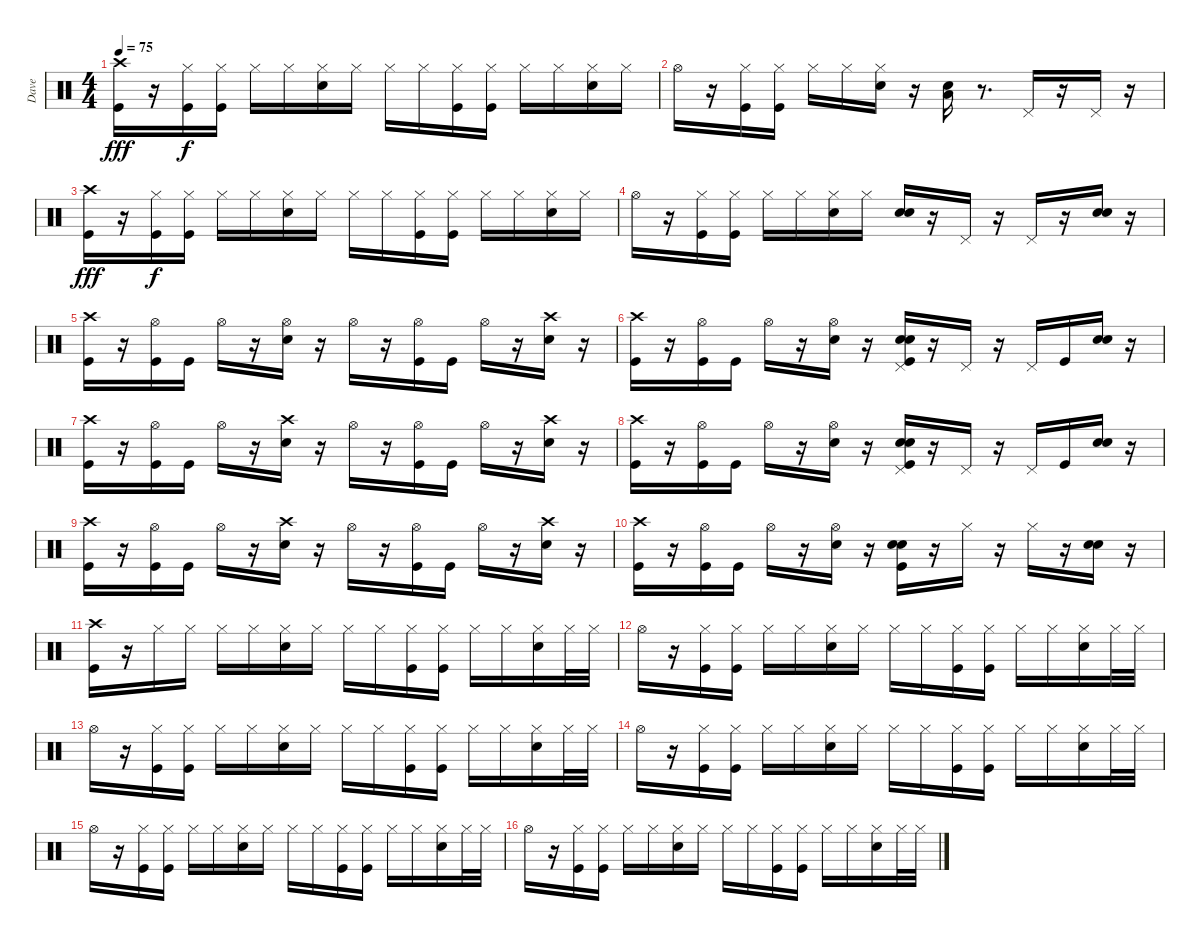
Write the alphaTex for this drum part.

\track ("Dave" "Dave") {instrument percussion}
\staff {score}
\articulation defaults
\ts (4 4)
\tempo 75
\clef neutral
\ks c
("Crash high (hit)" "Kick (hit)").16{dy fff} r.16 ("Hi-Hat (closed)" "Kick (hit)").16{dy f} ("Hi-Hat (closed)" "Kick (hit)").16 "Hi-Hat (closed)".16 "Hi-Hat (closed)".16 ("Hi-Hat (closed)" "Snare (hit) 2").16 "Hi-Hat (closed)".16 "Hi-Hat (closed)".16 "Hi-Hat (closed)".16 ("Hi-Hat (closed)" "Kick (hit)").16 ("Hi-Hat (closed)" "Kick (hit)").16 "Hi-Hat (closed)".16 "Hi-Hat (closed)".16 ("Hi-Hat (closed)" "Snare (hit) 2").16 "Hi-Hat (closed)".16 |
"Hi-Hat (open)".16 r.16 ("Hi-Hat (closed)" "Kick (hit)").16 ("Hi-Hat (closed)" "Kick (hit)").16 "Hi-Hat (closed)".16 "Hi-Hat (closed)".16 ("Hi-Hat (closed)" "Snare (hit) 2").16 r.16 ("Snare (hit) 2" "Low Floor Tom (hit)").16 r.8{d} "Pedal Hi-Hat (hit)".16 r.16 "Pedal Hi-Hat (hit)".16 r.16 |
("Crash high (hit)" "Kick (hit)").16{dy fff} r.16 ("Hi-Hat (closed)" "Kick (hit)").16{dy f} ("Hi-Hat (closed)" "Kick (hit)").16 "Hi-Hat (closed)".16 "Hi-Hat (closed)".16 ("Hi-Hat (closed)" "Snare (hit) 2").16 "Hi-Hat (closed)".16 "Hi-Hat (closed)".16 "Hi-Hat (closed)".16 ("Hi-Hat (closed)" "Kick (hit)").16 ("Hi-Hat (closed)" "Kick (hit)").16 "Hi-Hat (closed)".16 "Hi-Hat (closed)".16 ("Hi-Hat (closed)" "Snare (hit) 2").16 "Hi-Hat (closed)".16 |
"Hi-Hat (open)".16 r.16 ("Hi-Hat (closed)" "Kick (hit)").16 ("Hi-Hat (closed)" "Kick (hit)").16 "Hi-Hat (closed)".16 "Hi-Hat (closed)".16 ("Hi-Hat (closed)" "Snare (hit) 2").16 "Hi-Hat (closed)".16 ("Snare (hit) 2" "Snare (hit) 2").16 r.16 "Pedal Hi-Hat (hit)".16 r.16 "Pedal Hi-Hat (hit)".16 r.16 ("Snare (hit) 2" "Snare (hit) 2").16 r.16 |
("Crash high (hit)" "Kick (hit)").16 r.16 ("Hi-Hat (open)" "Kick (hit)").16 "Kick (hit)".16 "Hi-Hat (open)".16 r.16 ("Hi-Hat (open)" "Snare (hit) 2").16 r.16 "Hi-Hat (open)".16 r.16 ("Hi-Hat (open)" "Kick (hit)").16 "Kick (hit)".16 "Hi-Hat (open)".16 r.16 ("Crash high (hit)" "Snare (hit) 2").16 r.16 |
("Crash high (hit)" "Kick (hit)").16 r.16 ("Hi-Hat (open)" "Kick (hit)").16 "Kick (hit)".16 "Hi-Hat (open)".16 r.16 ("Hi-Hat (open)" "Snare (hit) 2").16 r.16 ("Pedal Hi-Hat (hit)" "Snare (hit) 2" "Snare (hit) 2" "Kick (hit)").16 r.16 "Pedal Hi-Hat (hit)".16 r.16 "Pedal Hi-Hat (hit)".16 "Kick (hit)".16 ("Snare (hit) 2" "Snare (hit) 2").16 r.16 |
("Crash high (hit)" "Kick (hit)").16 r.16 ("Hi-Hat (open)" "Kick (hit)").16 "Kick (hit)".16 "Hi-Hat (open)".16 r.16 ("Crash high (hit)" "Snare (hit) 2").16 r.16 "Hi-Hat (open)".16 r.16 ("Hi-Hat (open)" "Kick (hit)").16 "Kick (hit)".16 "Hi-Hat (open)".16 r.16 ("Crash high (hit)" "Snare (hit) 2").16 r.16 |
("Crash high (hit)" "Kick (hit)").16 r.16 ("Hi-Hat (open)" "Kick (hit)").16 "Kick (hit)".16 "Hi-Hat (open)".16 r.16 ("Hi-Hat (open)" "Snare (hit) 2").16 r.16 ("Pedal Hi-Hat (hit)" "Snare (hit) 2" "Snare (hit) 2" "Kick (hit)").16 r.16 "Pedal Hi-Hat (hit)".16 r.16 "Pedal Hi-Hat (hit)".16 "Kick (hit)".16 ("Snare (hit) 2" "Snare (hit) 2").16 r.16 |
("Crash high (hit)" "Kick (hit)").16 r.16 ("Hi-Hat (open)" "Kick (hit)").16 "Kick (hit)".16 "Hi-Hat (open)".16 r.16 ("Crash high (hit)" "Snare (hit) 2").16 r.16 "Hi-Hat (open)".16 r.16 ("Hi-Hat (open)" "Kick (hit)").16 "Kick (hit)".16 "Hi-Hat (open)".16 r.16 ("Crash high (hit)" "Snare (hit) 2").16 r.16 |
("Crash high (hit)" "Kick (hit)").16 r.16 ("Hi-Hat (open)" "Kick (hit)").16 "Kick (hit)".16 "Hi-Hat (open)".16 r.16 ("Hi-Hat (open)" "Snare (hit) 2").16 r.16 ("Snare (hit) 2" "Snare (hit) 2" "Kick (hit)").16 r.16 "Hi-Hat (closed)".16 r.16 "Hi-Hat (closed)".16 r.16 ("Snare (hit) 2" "Snare (hit) 2").16 r.16 |
("Crash high (hit)" "Kick (hit)").16 r.16 "Hi-Hat (closed)".16 "Hi-Hat (closed)".16 "Hi-Hat (closed)".16 "Hi-Hat (closed)".16 ("Hi-Hat (closed)" "Snare (hit) 2").16 "Hi-Hat (closed)".16 "Hi-Hat (closed)".16 "Hi-Hat (closed)".16 ("Hi-Hat (closed)" "Kick (hit)").16 ("Hi-Hat (closed)" "Kick (hit)").16 "Hi-Hat (closed)".16 "Hi-Hat (closed)".16 ("Hi-Hat (closed)" "Snare (hit) 2").16 "Hi-Hat (closed)".32 "Hi-Hat (closed)".32 |
"Hi-Hat (open)".16 r.16 ("Hi-Hat (closed)" "Kick (hit)").16 ("Hi-Hat (closed)" "Kick (hit)").16 "Hi-Hat (closed)".16 "Hi-Hat (closed)".16 ("Hi-Hat (closed)" "Snare (hit) 2").16 "Hi-Hat (closed)".16 "Hi-Hat (closed)".16 "Hi-Hat (closed)".16 ("Hi-Hat (closed)" "Kick (hit)").16 ("Hi-Hat (closed)" "Kick (hit)").16 "Hi-Hat (closed)".16 "Hi-Hat (closed)".16 ("Hi-Hat (closed)" "Snare (hit) 2").16 "Hi-Hat (closed)".32 "Hi-Hat (closed)".32 |
"Hi-Hat (open)".16 r.16 ("Hi-Hat (closed)" "Kick (hit)").16 ("Hi-Hat (closed)" "Kick (hit)").16 "Hi-Hat (closed)".16 "Hi-Hat (closed)".16 ("Hi-Hat (closed)" "Snare (hit) 2").16 "Hi-Hat (closed)".16 "Hi-Hat (closed)".16 "Hi-Hat (closed)".16 ("Hi-Hat (closed)" "Kick (hit)").16 ("Hi-Hat (closed)" "Kick (hit)").16 "Hi-Hat (closed)".16 "Hi-Hat (closed)".16 ("Hi-Hat (closed)" "Snare (hit) 2").16 "Hi-Hat (closed)".32 "Hi-Hat (closed)".32 |
"Hi-Hat (open)".16 r.16 ("Hi-Hat (closed)" "Kick (hit)").16 ("Hi-Hat (closed)" "Kick (hit)").16 "Hi-Hat (closed)".16 "Hi-Hat (closed)".16 ("Hi-Hat (closed)" "Snare (hit) 2").16 "Hi-Hat (closed)".16 "Hi-Hat (closed)".16 "Hi-Hat (closed)".16 ("Hi-Hat (closed)" "Kick (hit)").16 ("Hi-Hat (closed)" "Kick (hit)").16 "Hi-Hat (closed)".16 "Hi-Hat (closed)".16 ("Hi-Hat (closed)" "Snare (hit) 2").16 "Hi-Hat (closed)".32 "Hi-Hat (closed)".32 |
"Hi-Hat (open)".16 r.16 ("Hi-Hat (closed)" "Kick (hit)").16 ("Hi-Hat (closed)" "Kick (hit)").16 "Hi-Hat (closed)".16 "Hi-Hat (closed)".16 ("Hi-Hat (closed)" "Snare (hit) 2").16 "Hi-Hat (closed)".16 "Hi-Hat (closed)".16 "Hi-Hat (closed)".16 ("Hi-Hat (closed)" "Kick (hit)").16 ("Hi-Hat (closed)" "Kick (hit)").16 "Hi-Hat (closed)".16 "Hi-Hat (closed)".16 ("Hi-Hat (closed)" "Snare (hit) 2").16 "Hi-Hat (closed)".32 "Hi-Hat (closed)".32 |
"Hi-Hat (open)".16 r.16 ("Hi-Hat (closed)" "Kick (hit)").16 ("Hi-Hat (closed)" "Kick (hit)").16 "Hi-Hat (closed)".16 "Hi-Hat (closed)".16 ("Hi-Hat (closed)" "Snare (hit) 2").16 "Hi-Hat (closed)".16 "Hi-Hat (closed)".16 "Hi-Hat (closed)".16 ("Hi-Hat (closed)" "Kick (hit)").16 ("Hi-Hat (closed)" "Kick (hit)").16 "Hi-Hat (closed)".16 "Hi-Hat (closed)".16 ("Hi-Hat (closed)" "Snare (hit) 2").16 "Hi-Hat (closed)".32 "Hi-Hat (closed)".32
